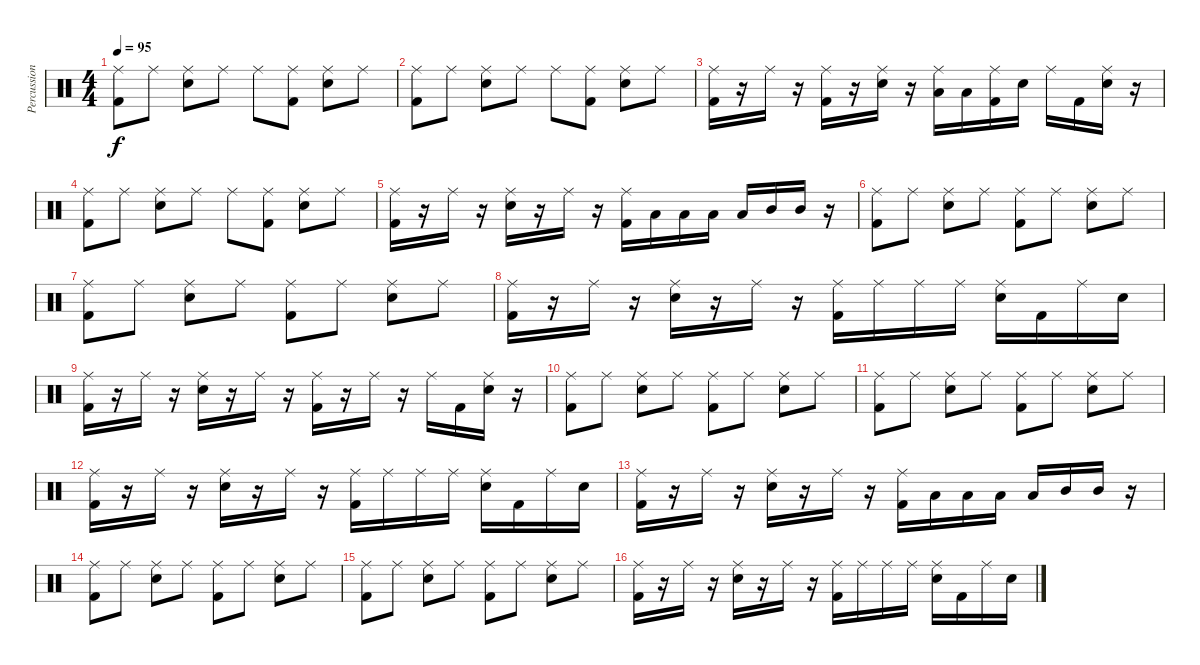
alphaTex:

\track ("Percussion" "Percussion") {instrument percussion}
\staff
\articulation defaults
\ts (4 4)
\tempo 95
\clef neutral
\ks c
("Ride (middle)" "Kick (hit) 2").8{dy f} "Ride (middle)".8 ("Ride (middle)" "Electric Snare (hit)").8 "Ride (middle)".8 "Ride (middle)".8 ("Ride (middle)" "Kick (hit) 2").8 ("Ride (middle)" "Electric Snare (hit)").8 "Ride (middle)".8 |
("Ride (middle)" "Kick (hit) 2").8 "Ride (middle)".8 ("Ride (middle)" "Electric Snare (hit)").8 "Ride (middle)".8 "Ride (middle)".8 ("Ride (middle)" "Kick (hit) 2").8 ("Ride (middle)" "Electric Snare (hit)").8 "Ride (middle)".8 |
("Ride (middle)" "Kick (hit) 2").16 r.16 "Ride (middle)".16 r.16 ("Ride (middle)" "Kick (hit) 2").16 r.16 ("Ride (middle)" "Electric Snare (hit)").16 r.16 ("Ride (middle)" "Low Floor Tom (hit)").16 "Low Tom (hit)".16 ("Ride (middle)" "Kick (hit) 2").16 "Electric Snare (hit)".16 "Ride (middle)".16 "Kick (hit) 2".16 ("Ride (middle)" "Electric Snare (hit)").16 r.16 |
("Ride (middle)" "Kick (hit) 2").8 "Ride (middle)".8 ("Ride (middle)" "Electric Snare (hit)").8 "Ride (middle)".8 "Ride (middle)".8 ("Ride (middle)" "Kick (hit) 2").8 ("Ride (middle)" "Electric Snare (hit)").8 "Ride (middle)".8 |
("Ride (middle)" "Kick (hit) 2").16 r.16 "Ride (middle)".16 r.16 ("Ride (middle)" "Electric Snare (hit)").16 r.16 "Ride (middle)".16 r.16 ("Ride (middle)" "Kick (hit) 2").16 "Low Floor Tom (hit)".16 "Low Floor Tom (hit)".16 "Low Tom (hit)".16 "Low Tom (hit)".16 "Mid Tom (hit)".16 "Mid Tom (hit)".16 r.16 |
("Ride (middle)" "Kick (hit) 2").8 "Ride (middle)".8 ("Ride (middle)" "Electric Snare (hit)").8 "Ride (middle)".8 ("Ride (middle)" "Kick (hit) 2").8 "Ride (middle)".8 ("Ride (middle)" "Electric Snare (hit)").8 "Ride (middle)".8 |
("Ride (middle)" "Kick (hit) 2").8 "Ride (middle)".8 ("Ride (middle)" "Electric Snare (hit)").8 "Ride (middle)".8 ("Ride (middle)" "Kick (hit) 2").8 "Ride (middle)".8 ("Ride (middle)" "Electric Snare (hit)").8 "Ride (middle)".8 |
("Ride (middle)" "Kick (hit) 2").16 r.16 "Ride (middle)".16 r.16 ("Ride (middle)" "Electric Snare (hit)").16 r.16 "Ride (middle)".16 r.16 ("Ride (middle)" "Kick (hit) 2").16 "Ride (middle)".16 "Ride (middle)".16 "Ride (middle)".16 ("Ride (middle)" "Electric Snare (hit)").16 "Kick (hit) 2".16 "Ride (middle)".16 "Electric Snare (hit)".16 |
("Ride (middle)" "Kick (hit) 2").16 r.16 "Ride (middle)".16 r.16 ("Ride (middle)" "Electric Snare (hit)").16 r.16 "Ride (middle)".16 r.16 ("Ride (middle)" "Kick (hit) 2").16 r.16 "Ride (middle)".16 r.16 "Ride (middle)".16 "Kick (hit) 2".16 ("Ride (middle)" "Electric Snare (hit)").16 r.16 |
("Ride (middle)" "Kick (hit) 2").8 "Ride (middle)".8 ("Ride (middle)" "Electric Snare (hit)").8 "Ride (middle)".8 ("Ride (middle)" "Kick (hit) 2").8 "Ride (middle)".8 ("Ride (middle)" "Electric Snare (hit)").8 "Ride (middle)".8 |
("Ride (middle)" "Kick (hit) 2").8 "Ride (middle)".8 ("Ride (middle)" "Electric Snare (hit)").8 "Ride (middle)".8 ("Ride (middle)" "Kick (hit) 2").8 "Ride (middle)".8 ("Ride (middle)" "Electric Snare (hit)").8 "Ride (middle)".8 |
("Ride (middle)" "Kick (hit) 2").16 r.16 "Ride (middle)".16 r.16 ("Ride (middle)" "Electric Snare (hit)").16 r.16 "Ride (middle)".16 r.16 ("Ride (middle)" "Kick (hit) 2").16 "Ride (middle)".16 "Ride (middle)".16 "Ride (middle)".16 ("Ride (middle)" "Electric Snare (hit)").16 "Kick (hit) 2".16 "Ride (middle)".16 "Electric Snare (hit)".16 |
("Ride (middle)" "Kick (hit) 2").16 r.16 "Ride (middle)".16 r.16 ("Ride (middle)" "Electric Snare (hit)").16 r.16 "Ride (middle)".16 r.16 ("Ride (middle)" "Kick (hit) 2").16 "Low Floor Tom (hit)".16 "Low Floor Tom (hit)".16 "Low Tom (hit)".16 "Low Tom (hit)".16 "Mid Tom (hit)".16 "Mid Tom (hit)".16 r.16 |
("Ride (middle)" "Kick (hit) 2").8 "Ride (middle)".8 ("Ride (middle)" "Electric Snare (hit)").8 "Ride (middle)".8 ("Ride (middle)" "Kick (hit) 2").8 "Ride (middle)".8 ("Ride (middle)" "Electric Snare (hit)").8 "Ride (middle)".8 |
("Ride (middle)" "Kick (hit) 2").8 "Ride (middle)".8 ("Ride (middle)" "Electric Snare (hit)").8 "Ride (middle)".8 ("Ride (middle)" "Kick (hit) 2").8 "Ride (middle)".8 ("Ride (middle)" "Electric Snare (hit)").8 "Ride (middle)".8 |
("Ride (middle)" "Kick (hit) 2").16 r.16 "Ride (middle)".16 r.16 ("Ride (middle)" "Electric Snare (hit)").16 r.16 "Ride (middle)".16 r.16 ("Ride (middle)" "Kick (hit) 2").16 "Ride (middle)".16 "Ride (middle)".16 "Ride (middle)".16 ("Ride (middle)" "Electric Snare (hit)").16 "Kick (hit) 2".16 "Ride (middle)".16 "Electric Snare (hit)".16
